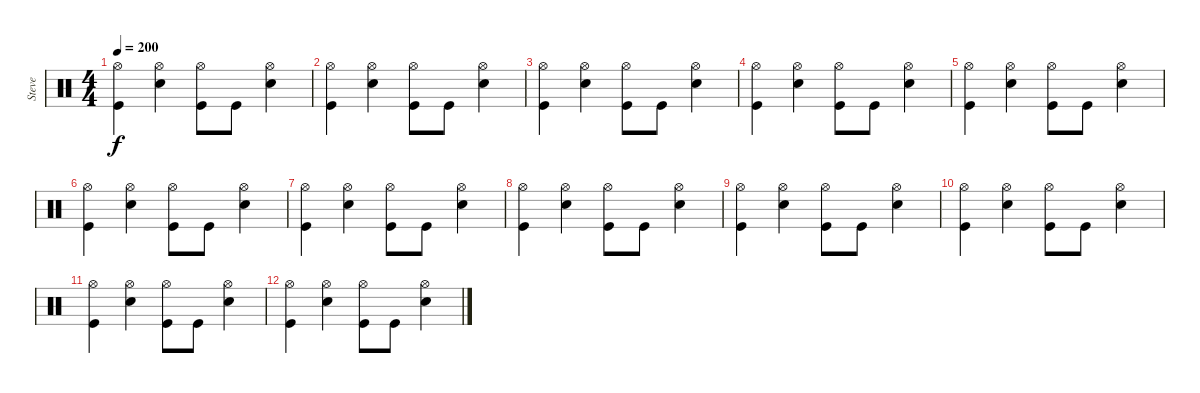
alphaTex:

\track ("Steve" "Steve") {instrument percussion}
\staff {score}
\articulation defaults
\ts (4 4)
\tempo 200
\clef neutral
\ks c
("Hi-Hat (open)" "Kick (hit)").4{dy f} ("Hi-Hat (open)" "Snare (hit) 2").4 ("Hi-Hat (open)" "Kick (hit)").8 "Kick (hit)".8 ("Hi-Hat (open)" "Snare (hit) 2").4 |
("Hi-Hat (open)" "Kick (hit)").4 ("Hi-Hat (open)" "Snare (hit) 2").4 ("Hi-Hat (open)" "Kick (hit)").8 "Kick (hit)".8 ("Hi-Hat (open)" "Snare (hit) 2").4 |
("Hi-Hat (open)" "Kick (hit)").4 ("Hi-Hat (open)" "Snare (hit) 2").4 ("Hi-Hat (open)" "Kick (hit)").8 "Kick (hit)".8 ("Hi-Hat (open)" "Snare (hit) 2").4 |
("Hi-Hat (open)" "Kick (hit)").4 ("Hi-Hat (open)" "Snare (hit) 2").4 ("Hi-Hat (open)" "Kick (hit)").8 "Kick (hit)".8 ("Hi-Hat (open)" "Snare (hit) 2").4 |
("Hi-Hat (open)" "Kick (hit)").4 ("Hi-Hat (open)" "Snare (hit) 2").4 ("Hi-Hat (open)" "Kick (hit)").8 "Kick (hit)".8 ("Hi-Hat (open)" "Snare (hit) 2").4 |
("Hi-Hat (open)" "Kick (hit)").4 ("Hi-Hat (open)" "Snare (hit) 2").4 ("Hi-Hat (open)" "Kick (hit)").8 "Kick (hit)".8 ("Hi-Hat (open)" "Snare (hit) 2").4 |
("Hi-Hat (open)" "Kick (hit)").4 ("Hi-Hat (open)" "Snare (hit) 2").4 ("Hi-Hat (open)" "Kick (hit)").8 "Kick (hit)".8 ("Hi-Hat (open)" "Snare (hit) 2").4 |
("Hi-Hat (open)" "Kick (hit)").4 ("Hi-Hat (open)" "Snare (hit) 2").4 ("Hi-Hat (open)" "Kick (hit)").8 "Kick (hit)".8 ("Hi-Hat (open)" "Snare (hit) 2").4 |
("Hi-Hat (open)" "Kick (hit)").4 ("Hi-Hat (open)" "Snare (hit) 2").4 ("Hi-Hat (open)" "Kick (hit)").8 "Kick (hit)".8 ("Hi-Hat (open)" "Snare (hit) 2").4 |
("Hi-Hat (open)" "Kick (hit)").4 ("Hi-Hat (open)" "Snare (hit) 2").4 ("Hi-Hat (open)" "Kick (hit)").8 "Kick (hit)".8 ("Hi-Hat (open)" "Snare (hit) 2").4 |
("Hi-Hat (open)" "Kick (hit)").4 ("Hi-Hat (open)" "Snare (hit) 2").4 ("Hi-Hat (open)" "Kick (hit)").8 "Kick (hit)".8 ("Hi-Hat (open)" "Snare (hit) 2").4 |
("Hi-Hat (open)" "Kick (hit)").4 ("Hi-Hat (open)" "Snare (hit) 2").4 ("Hi-Hat (open)" "Kick (hit)").8 "Kick (hit)".8 ("Hi-Hat (open)" "Snare (hit) 2").4
